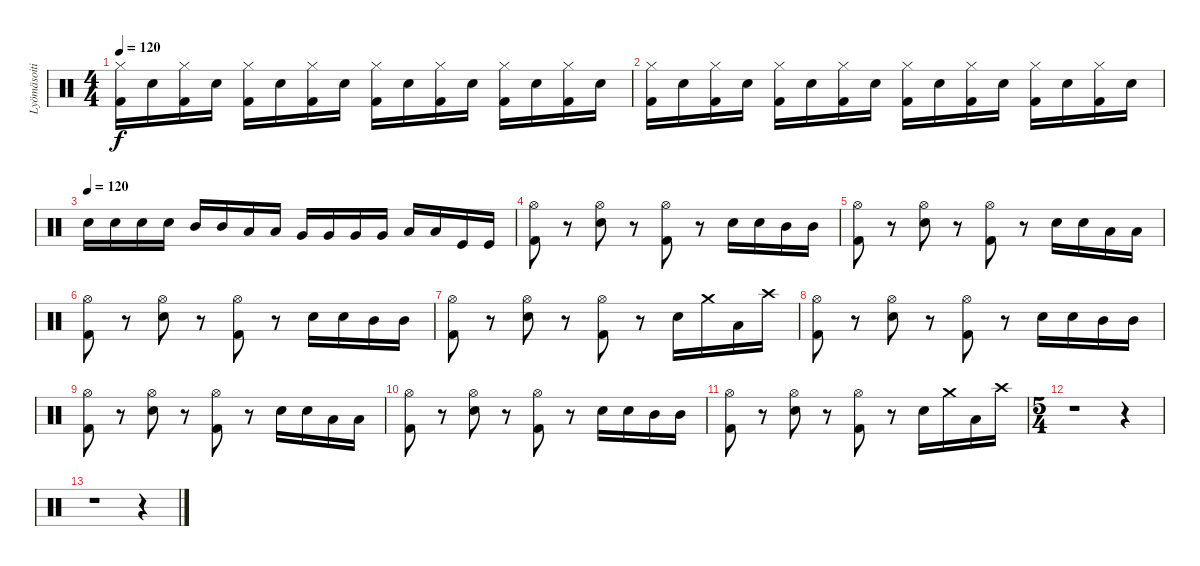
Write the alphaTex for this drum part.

\track ("Lyömäsoitin" "Lyömäsoiti") {instrument percussion}
\staff {score}
\articulation defaults
\ts (4 4)
\tempo 120
\clef neutral
\ks c
("Hi-Hat (closed)" "Kick (hit) 2").16{dy f} "Snare (hit) 2".16 ("Hi-Hat (closed)" "Kick (hit) 2").16 "Snare (hit) 2".16 ("Hi-Hat (closed)" "Kick (hit) 2").16 "Snare (hit) 2".16 ("Hi-Hat (closed)" "Kick (hit) 2").16 "Snare (hit) 2".16 ("Hi-Hat (closed)" "Kick (hit) 2").16 "Snare (hit) 2".16 ("Hi-Hat (closed)" "Kick (hit) 2").16 "Snare (hit) 2".16 ("Hi-Hat (closed)" "Kick (hit) 2").16 "Snare (hit) 2".16 ("Hi-Hat (closed)" "Kick (hit) 2").16 "Snare (hit) 2".16 |
("Hi-Hat (closed)" "Kick (hit) 2").16 "Snare (hit) 2".16 ("Hi-Hat (closed)" "Kick (hit) 2").16 "Snare (hit) 2".16 ("Hi-Hat (closed)" "Kick (hit) 2").16 "Snare (hit) 2".16 ("Hi-Hat (closed)" "Kick (hit) 2").16 "Snare (hit) 2".16 ("Hi-Hat (closed)" "Kick (hit) 2").16 "Snare (hit) 2".16 ("Hi-Hat (closed)" "Kick (hit) 2").16 "Snare (hit) 2".16 ("Hi-Hat (closed)" "Kick (hit) 2").16 "Snare (hit) 2".16 ("Hi-Hat (closed)" "Kick (hit) 2").16 "Snare (hit) 2".16 |
\tempo (120)
"Snare (hit) 2".16 "Snare (hit) 2".16 "Snare (hit) 2".16 "Snare (hit) 2".16 "Mid Tom (hit)".16 "Mid Tom (hit)".16 "Low Tom (hit)".16 "Low Tom (hit)".16 "Very Low Tom (hit)".16 "Very Low Tom (hit)".16 "Very Low Tom (hit)".16 "Very Low Tom (hit)".16 "Low Floor Tom (hit)".16 "Low Floor Tom (hit)".16 "Kick (hit)".16 "Kick (hit)".16 |
("Hi-Hat (open)" "Kick (hit) 2").8 r.8 ("Hi-Hat (open)" "Snare (hit) 2").8 r.8 ("Hi-Hat (open)" "Kick (hit) 2").8 r.8 "Snare (hit) 2".16 "Snare (hit) 2".16 "Mid Tom (hit)".16 "Mid Tom (hit)".16 |
("Hi-Hat (open)" "Kick (hit) 2").8 r.8 ("Hi-Hat (open)" "Snare (hit) 2").8 r.8 ("Hi-Hat (open)" "Kick (hit) 2").8 r.8 "Snare (hit) 2".16 "Snare (hit) 2".16 "Low Tom (hit)".16 "Low Tom (hit)".16 |
("Hi-Hat (open)" "Kick (hit) 2").8 r.8 ("Hi-Hat (open)" "Snare (hit) 2").8 r.8 ("Hi-Hat (open)" "Kick (hit) 2").8 r.8 "Snare (hit) 2".16 "Snare (hit) 2".16 "Mid Tom (hit)".16 "Mid Tom (hit)".16 |
("Hi-Hat (open)" "Kick (hit) 2").8 r.8 ("Hi-Hat (open)" "Snare (hit) 2").8 r.8 ("Hi-Hat (open)" "Kick (hit) 2").8 r.8 "Snare (hit) 2".16 "Crash medium (hit)".16 "Low Tom (hit)".16 "Crash high (hit)".16 |
("Hi-Hat (open)" "Kick (hit) 2").8 r.8 ("Hi-Hat (open)" "Snare (hit) 2").8 r.8 ("Hi-Hat (open)" "Kick (hit) 2").8 r.8 "Snare (hit) 2".16 "Snare (hit) 2".16 "Mid Tom (hit)".16 "Mid Tom (hit)".16 |
("Hi-Hat (open)" "Kick (hit) 2").8 r.8 ("Hi-Hat (open)" "Snare (hit) 2").8 r.8 ("Hi-Hat (open)" "Kick (hit) 2").8 r.8 "Snare (hit) 2".16 "Snare (hit) 2".16 "Low Tom (hit)".16 "Low Tom (hit)".16 |
("Hi-Hat (open)" "Kick (hit) 2").8 r.8 ("Hi-Hat (open)" "Snare (hit) 2").8 r.8 ("Hi-Hat (open)" "Kick (hit) 2").8 r.8 "Snare (hit) 2".16 "Snare (hit) 2".16 "Mid Tom (hit)".16 "Mid Tom (hit)".16 |
("Hi-Hat (open)" "Kick (hit) 2").8 r.8 ("Hi-Hat (open)" "Snare (hit) 2").8 r.8 ("Hi-Hat (open)" "Kick (hit) 2").8 r.8 "Snare (hit) 2".16 "Crash medium (hit)".16 "Low Tom (hit)".16 "Crash high (hit)".16 |
\ts (5 4)
r.1 r.4 |
r.1 r.4
